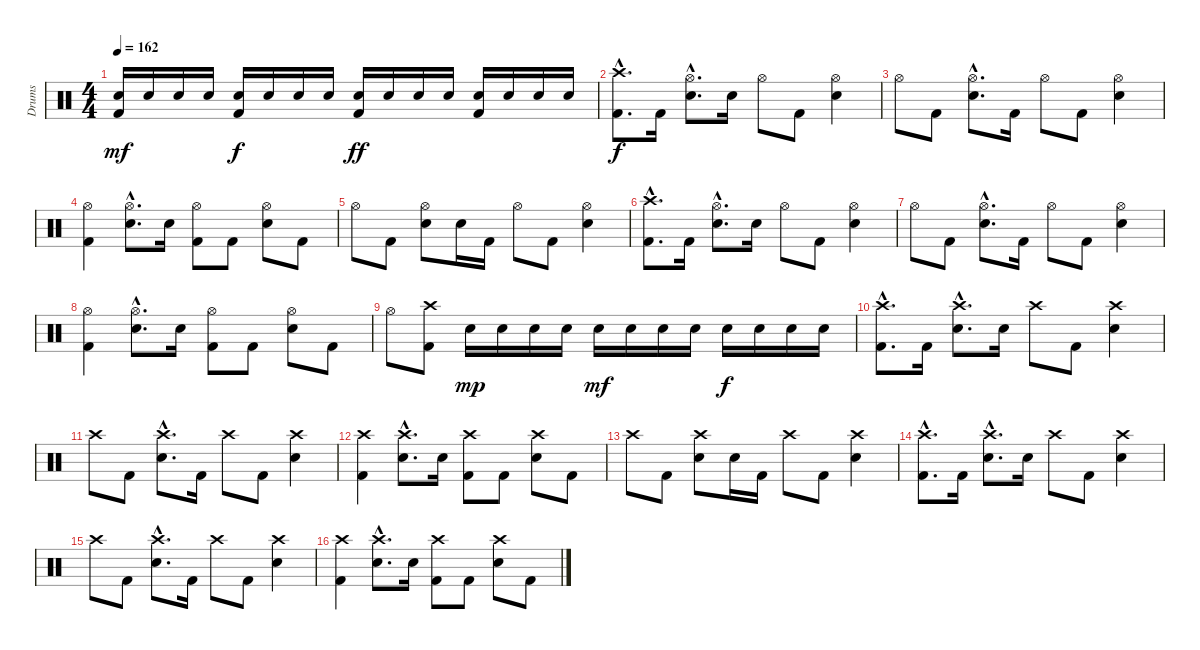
\track ("Drums" "Drums") {instrument percussion}
\staff {score}
\articulation defaults
\ts (4 4)
\tempo 162
\clef neutral
\ks c
("Electric Snare (hit)" "Kick (hit) 2").16{dy mf} "Electric Snare (hit)".16 "Electric Snare (hit)".16 "Electric Snare (hit)".16 ("Electric Snare (hit)" "Kick (hit) 2").16{dy f} "Electric Snare (hit)".16 "Electric Snare (hit)".16 "Electric Snare (hit)".16 ("Electric Snare (hit)" "Kick (hit) 2").16{dy ff} "Electric Snare (hit)".16 "Electric Snare (hit)".16 "Electric Snare (hit)".16 ("Electric Snare (hit)" "Kick (hit) 2").16 "Electric Snare (hit)".16 "Electric Snare (hit)".16 "Electric Snare (hit)".16 |
("Crash high (hit)"{hac} "Kick (hit) 2"{hac}).8{d dy f} "Kick (hit) 2".16 ("Hi-Hat (open)"{hac} "Electric Snare (hit)"{hac}).8{d} "Electric Snare (hit)".16 "Hi-Hat (open)".8 "Kick (hit) 2".8 ("Hi-Hat (open)" "Electric Snare (hit)").4 |
"Hi-Hat (open)".8 "Kick (hit) 2".8 ("Hi-Hat (open)"{hac} "Electric Snare (hit)"{hac}).8{d} "Kick (hit) 2".16 "Hi-Hat (open)".8 "Kick (hit) 2".8 ("Hi-Hat (open)" "Electric Snare (hit)").4 |
("Hi-Hat (open)" "Kick (hit) 2").4 ("Hi-Hat (open)"{hac} "Electric Snare (hit)"{hac}).8{d} "Electric Snare (hit)".16 ("Hi-Hat (open)" "Kick (hit) 2").8 "Kick (hit) 2".8 ("Hi-Hat (open)" "Electric Snare (hit)").8 "Kick (hit) 2".8 |
"Hi-Hat (open)".8 "Kick (hit) 2".8 ("Hi-Hat (open)" "Electric Snare (hit)").8 "Electric Snare (hit)".16 "Kick (hit) 2".16 "Hi-Hat (open)".8 "Kick (hit) 2".8 ("Hi-Hat (open)" "Electric Snare (hit)").4 |
("Crash high (hit)"{hac} "Kick (hit) 2"{hac}).8{d} "Kick (hit) 2".16 ("Hi-Hat (open)"{hac} "Electric Snare (hit)"{hac}).8{d} "Electric Snare (hit)".16 "Hi-Hat (open)".8 "Kick (hit) 2".8 ("Hi-Hat (open)" "Electric Snare (hit)").4 |
"Hi-Hat (open)".8 "Kick (hit) 2".8 ("Hi-Hat (open)"{hac} "Electric Snare (hit)"{hac}).8{d} "Kick (hit) 2".16 "Hi-Hat (open)".8 "Kick (hit) 2".8 ("Hi-Hat (open)" "Electric Snare (hit)").4 |
("Hi-Hat (open)" "Kick (hit) 2").4 ("Hi-Hat (open)"{hac} "Electric Snare (hit)"{hac}).8{d} "Electric Snare (hit)".16 ("Hi-Hat (open)" "Kick (hit) 2").8 "Kick (hit) 2".8 ("Hi-Hat (open)" "Electric Snare (hit)").8 "Kick (hit) 2".8 |
"Hi-Hat (open)".8 ("Crash high (hit)" "Kick (hit) 2").8 "Electric Snare (hit)".16{dy mp} "Electric Snare (hit)".16 "Electric Snare (hit)".16 "Electric Snare (hit)".16 "Electric Snare (hit)".16{dy mf} "Electric Snare (hit)".16 "Electric Snare (hit)".16 "Electric Snare (hit)".16 "Electric Snare (hit)".16{dy f} "Electric Snare (hit)".16 "Electric Snare (hit)".16 "Electric Snare (hit)".16 |
("Crash high (hit)"{hac} "Kick (hit) 2"{hac}).8{d} "Kick (hit) 2".16 ("Crash high (hit)"{hac} "Electric Snare (hit)"{hac}).8{d} "Electric Snare (hit)".16 "Crash high (hit)".8 "Kick (hit) 2".8 ("Crash high (hit)" "Electric Snare (hit)").4 |
"Crash high (hit)".8 "Kick (hit) 2".8 ("Crash high (hit)"{hac} "Electric Snare (hit)"{hac}).8{d} "Kick (hit) 2".16 "Crash high (hit)".8 "Kick (hit) 2".8 ("Crash high (hit)" "Electric Snare (hit)").4 |
("Crash high (hit)" "Kick (hit) 2").4 ("Crash high (hit)"{hac} "Electric Snare (hit)"{hac}).8{d} "Electric Snare (hit)".16 ("Crash high (hit)" "Kick (hit) 2").8 "Kick (hit) 2".8 ("Crash high (hit)" "Electric Snare (hit)").8 "Kick (hit) 2".8 |
"Crash high (hit)".8 "Kick (hit) 2".8 ("Crash high (hit)" "Electric Snare (hit)").8 "Electric Snare (hit)".16 "Kick (hit) 2".16 "Crash high (hit)".8 "Kick (hit) 2".8 ("Crash high (hit)" "Electric Snare (hit)").4 |
("Crash high (hit)"{hac} "Kick (hit) 2"{hac}).8{d} "Kick (hit) 2".16 ("Crash high (hit)"{hac} "Electric Snare (hit)"{hac}).8{d} "Electric Snare (hit)".16 "Crash high (hit)".8 "Kick (hit) 2".8 ("Crash high (hit)" "Electric Snare (hit)").4 |
"Crash high (hit)".8 "Kick (hit) 2".8 ("Crash high (hit)"{hac} "Electric Snare (hit)"{hac}).8{d} "Kick (hit) 2".16 "Crash high (hit)".8 "Kick (hit) 2".8 ("Crash high (hit)" "Electric Snare (hit)").4 |
("Crash high (hit)" "Kick (hit) 2").4 ("Crash high (hit)"{hac} "Electric Snare (hit)"{hac}).8{d} "Electric Snare (hit)".16 ("Crash high (hit)" "Kick (hit) 2").8 "Kick (hit) 2".8 ("Crash high (hit)" "Electric Snare (hit)").8 "Kick (hit) 2".8
